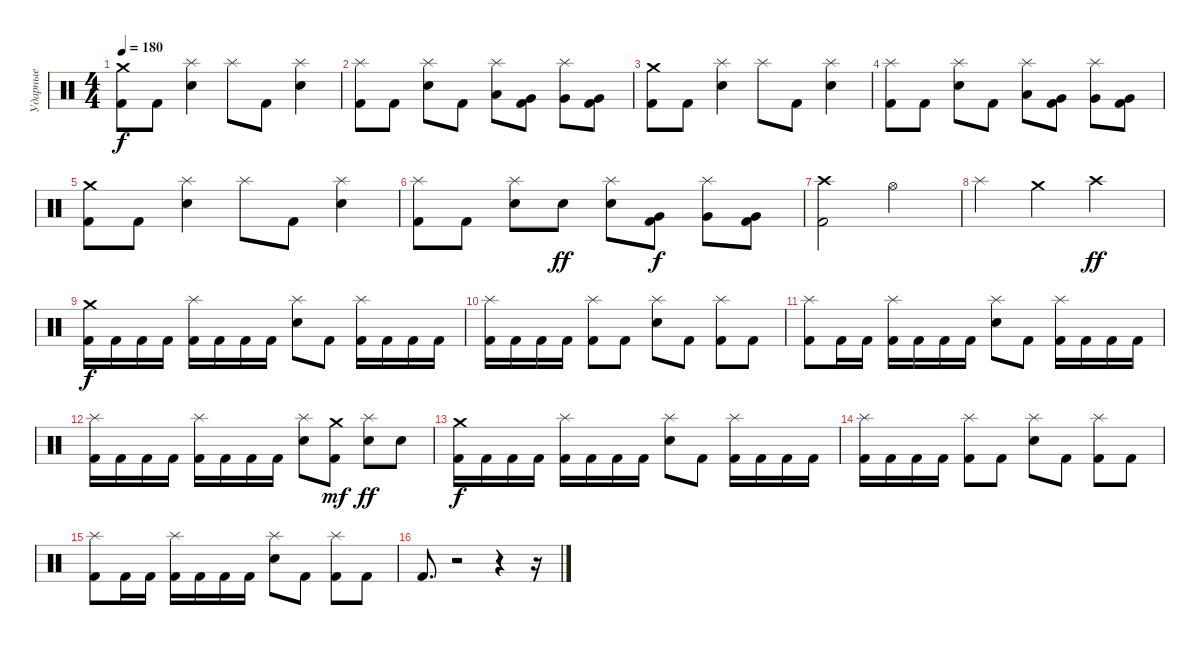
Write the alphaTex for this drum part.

\track ("Ударные" "Ударные") {instrument percussion bank 127}
\staff {score}
\articulation defaults
\ts (4 4)
\tempo 180
\clef neutral
\ks c
("Crash medium (hit)" "Kick (hit) 2").8{dy f} "Kick (hit) 2".8 ("Splash (hit)" "Snare (hit) 2").4 "Splash (hit)".8 "Kick (hit) 2".8 ("Splash (hit)" "Snare (hit) 2").4 |
("Splash (hit)" "Kick (hit) 2").8 "Kick (hit) 2".8 ("Splash (hit)" "Snare (hit) 2").8 "Kick (hit) 2".8 ("Splash (hit)" "Low Tom (hit)").8 ("Very Low Tom (hit)" "Kick (hit) 2").8 ("Splash (hit)" "Very Low Tom (hit)").8 ("Very Low Tom (hit)" "Kick (hit) 2").8 |
("Crash medium (hit)" "Kick (hit) 2").8 "Kick (hit) 2".8 ("Splash (hit)" "Snare (hit) 2").4 "Splash (hit)".8 "Kick (hit) 2".8 ("Splash (hit)" "Snare (hit) 2").4 |
("Splash (hit)" "Kick (hit) 2").8 "Kick (hit) 2".8 ("Splash (hit)" "Snare (hit) 2").8 "Kick (hit) 2".8 ("Splash (hit)" "Low Tom (hit)").8 ("Very Low Tom (hit)" "Kick (hit) 2").8 ("Splash (hit)" "Very Low Tom (hit)").8 ("Very Low Tom (hit)" "Kick (hit) 2").8 |
("Crash medium (hit)" "Kick (hit) 2").8 "Kick (hit) 2".8 ("Splash (hit)" "Snare (hit) 2").4 "Splash (hit)".8 "Kick (hit) 2".8 ("Splash (hit)" "Snare (hit) 2").4 |
("Splash (hit)" "Kick (hit) 2").8 "Kick (hit) 2".8 ("Splash (hit)" "Snare (hit) 2").8 "Snare (hit) 2".8{dy ff} ("Splash (hit)" "Snare (hit) 2").8 ("Very Low Tom (hit)" "Kick (hit) 2").8{dy f} ("Splash (hit)" "Very Low Tom (hit)").8 ("Very Low Tom (hit)" "Kick (hit) 2").8 |
("Crash high (hit)" "Kick (hit) 2").2 "Hi-Hat (open)".2 |
"Splash (hit)".4 "Crash medium (hit)".4 "Crash high (hit)".2{dy ff} |
("Crash medium (hit)" "Kick (hit) 2").16{dy f} "Kick (hit) 2".16 "Kick (hit) 2".16 "Kick (hit) 2".16 ("Splash (hit)" "Kick (hit) 2").16 "Kick (hit) 2".16 "Kick (hit) 2".16 "Kick (hit) 2".16 ("Splash (hit)" "Snare (hit) 2").8 "Kick (hit) 2".8 ("Splash (hit)" "Kick (hit) 2").16 "Kick (hit) 2".16 "Kick (hit) 2".16 "Kick (hit) 2".16 |
("Splash (hit)" "Kick (hit) 2").16 "Kick (hit) 2".16 "Kick (hit) 2".16 "Kick (hit) 2".16 ("Splash (hit)" "Kick (hit) 2").8 "Kick (hit) 2".8 ("Splash (hit)" "Snare (hit) 2").8 "Kick (hit) 2".8 ("Splash (hit)" "Kick (hit) 2").8 "Kick (hit) 2".8 |
("Splash (hit)" "Kick (hit) 2").8 "Kick (hit) 2".16 "Kick (hit) 2".16 ("Splash (hit)" "Kick (hit) 2").16 "Kick (hit) 2".16 "Kick (hit) 2".16 "Kick (hit) 2".16 ("Splash (hit)" "Snare (hit) 2").8 "Kick (hit) 2".8 ("Splash (hit)" "Kick (hit) 2").16 "Kick (hit) 2".16 "Kick (hit) 2".16 "Kick (hit) 2".16 |
("Splash (hit)" "Kick (hit) 2").16 "Kick (hit) 2".16 "Kick (hit) 2".16 "Kick (hit) 2".16 ("Splash (hit)" "Kick (hit) 2").16 "Kick (hit) 2".16 "Kick (hit) 2".16 "Kick (hit) 2".16 ("Splash (hit)" "Snare (hit) 2").8 ("Crash medium (hit)" "Kick (hit) 2").8{dy mf} ("Splash (hit)" "Snare (hit) 2").8{dy ff} "Snare (hit) 2".8 |
("Crash medium (hit)" "Kick (hit) 2").16{dy f} "Kick (hit) 2".16 "Kick (hit) 2".16 "Kick (hit) 2".16 ("Splash (hit)" "Kick (hit) 2").16 "Kick (hit) 2".16 "Kick (hit) 2".16 "Kick (hit) 2".16 ("Splash (hit)" "Snare (hit) 2").8 "Kick (hit) 2".8 ("Splash (hit)" "Kick (hit) 2").16 "Kick (hit) 2".16 "Kick (hit) 2".16 "Kick (hit) 2".16 |
("Splash (hit)" "Kick (hit) 2").16 "Kick (hit) 2".16 "Kick (hit) 2".16 "Kick (hit) 2".16 ("Splash (hit)" "Kick (hit) 2").8 "Kick (hit) 2".8 ("Splash (hit)" "Snare (hit) 2").8 "Kick (hit) 2".8 ("Splash (hit)" "Kick (hit) 2").8 "Kick (hit) 2".8 |
("Splash (hit)" "Kick (hit) 2").8 "Kick (hit) 2".16 "Kick (hit) 2".16 ("Splash (hit)" "Kick (hit) 2").16 "Kick (hit) 2".16 "Kick (hit) 2".16 "Kick (hit) 2".16 ("Splash (hit)" "Snare (hit) 2").8 "Kick (hit) 2".8 ("Splash (hit)" "Kick (hit) 2").8 "Kick (hit) 2".8 |
"Kick (hit) 2".8{d} r.2 r.4 r.16
